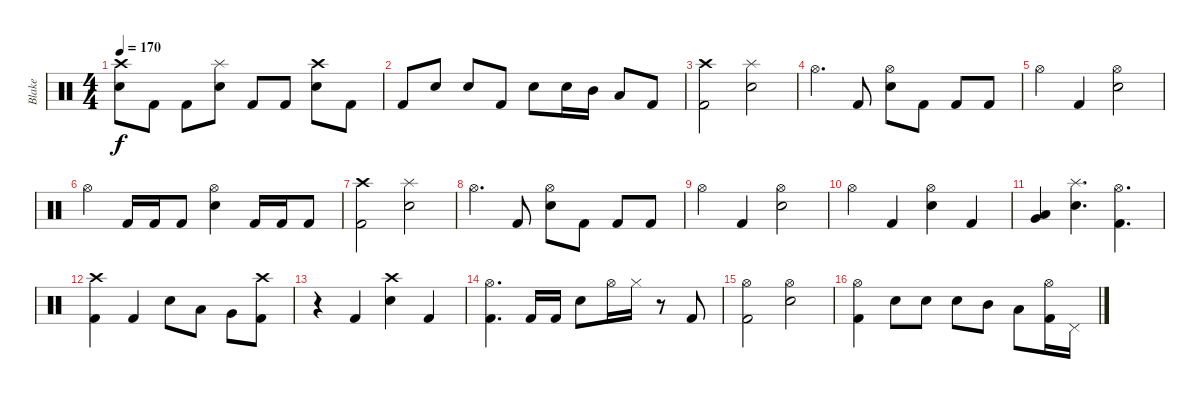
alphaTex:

\track ("Blake" "Blake") {instrument percussion}
\staff {score}
\articulation defaults
\ts (4 4)
\tempo 170
\clef neutral
\ks c
("Crash high (hit)" "Snare (hit) 2").8{dy f} "Kick (hit) 2".8 "Kick (hit) 2".8 ("Splash (hit)" "Snare (hit) 2").8 "Kick (hit) 2".8 "Kick (hit) 2".8 ("Crash high (hit)" "Snare (hit) 2").8 "Kick (hit) 2".8 |
"Kick (hit) 2".8 "Snare (hit) 2".8 "Snare (hit) 2".8 "Kick (hit) 2".8 "Snare (hit) 2".8 "Snare (hit) 2".16 "Mid Tom (hit)".16 "Low Tom (hit)".8 "Kick (hit) 2".8 |
("Crash high (hit)" "Kick (hit) 2").2 ("Splash (hit)" "Snare (hit) 2").2 |
"Hi-Hat (open)".4{d} "Kick (hit) 2".8 ("Hi-Hat (open)" "Snare (hit) 2").8 "Kick (hit) 2".8 "Kick (hit) 2".8 "Kick (hit) 2".8 |
"Hi-Hat (open)".4 "Kick (hit) 2".4 ("Hi-Hat (open)" "Snare (hit) 2").2 |
"Hi-Hat (open)".4 "Kick (hit) 2".16 "Kick (hit) 2".16 "Kick (hit) 2".8 ("Hi-Hat (open)" "Snare (hit) 2").4 "Kick (hit) 2".16 "Kick (hit) 2".16 "Kick (hit) 2".8 |
("Crash high (hit)" "Kick (hit) 2").2 ("Splash (hit)" "Snare (hit) 2").2 |
"Hi-Hat (open)".4{d} "Kick (hit) 2".8 ("Hi-Hat (open)" "Snare (hit) 2").8 "Kick (hit) 2".8 "Kick (hit) 2".8 "Kick (hit) 2".8 |
"Hi-Hat (open)".4 "Kick (hit) 2".4 ("Hi-Hat (open)" "Snare (hit) 2").2 |
"Hi-Hat (open)".4 "Kick (hit) 2".4 ("Hi-Hat (open)" "Snare (hit) 2").4 "Kick (hit) 2".4 |
("Low Tom (hit)" "Very Low Tom (hit)").4 ("Splash (hit)" "Snare (hit) 2").4{d} ("Hi-Hat (open)" "Kick (hit) 2").4{d} |
("Crash high (hit)" "Kick (hit) 2").4 "Kick (hit) 2".4 "Snare (hit) 2".8 "Low Tom (hit)".8 "Very Low Tom (hit)".8 ("Crash high (hit)" "Kick (hit) 2").8 |
r.4 "Kick (hit) 2".4 ("Crash high (hit)" "Snare (hit) 2").4 "Kick (hit) 2".4 |
("Hi-Hat (open)" "Kick (hit) 2").4{d} "Kick (hit) 2".16 "Kick (hit) 2".16 "Snare (hit) 2".8 "Hi-Hat (open)".16 "Hi-Hat (closed)".16 r.8 "Kick (hit) 2".8 |
("Hi-Hat (open)" "Kick (hit) 2").2 ("Hi-Hat (open)" "Snare (hit) 2").2 |
("Hi-Hat (open)" "Kick (hit) 2").4 "Snare (hit) 2".8 "Snare (hit) 2".8 "Snare (hit) 2".8 "Mid Tom (hit)".8 "Low Tom (hit)".8 ("Hi-Hat (open)" "Kick (hit) 2").16 "Pedal Hi-Hat (hit)".16
